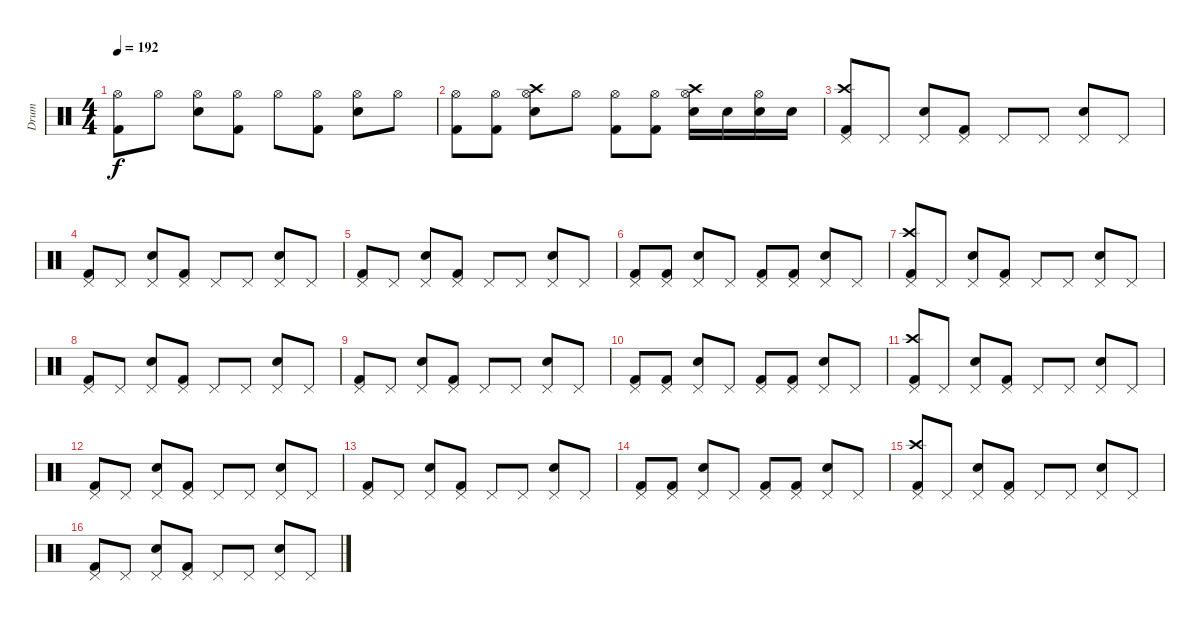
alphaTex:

\track ("Drum" "Drum") {instrument percussion}
\staff {score}
\articulation defaults
\ts (4 4)
\tempo 192
\clef neutral
\ks c
("Kick (hit) 2" "Hi-Hat (open)").8{dy f} "Hi-Hat (open)".8 ("Electric Snare (hit)" "Hi-Hat (open)").8 ("Kick (hit) 2" "Hi-Hat (open)").8 "Hi-Hat (open)".8 ("Kick (hit) 2" "Hi-Hat (open)").8 ("Electric Snare (hit)" "Hi-Hat (open)").8 "Hi-Hat (open)".8 |
("Kick (hit) 2" "Hi-Hat (open)").8 ("Kick (hit) 2" "Hi-Hat (open)").8 ("Crash high (hit)" "Electric Snare (hit)" "Hi-Hat (open)").8 "Hi-Hat (open)".8 ("Kick (hit) 2" "Hi-Hat (open)").8 ("Kick (hit) 2" "Hi-Hat (open)").8 ("Crash high (hit)" "Electric Snare (hit)" "Hi-Hat (open)").16 "Electric Snare (hit)".16 ("Electric Snare (hit)" "Hi-Hat (open)").16 "Electric Snare (hit)".16 |
("Crash high (hit)" "Kick (hit) 2" "Pedal Hi-Hat (hit)").8 "Pedal Hi-Hat (hit)".8 ("Electric Snare (hit)" "Pedal Hi-Hat (hit)").8 ("Kick (hit) 2" "Pedal Hi-Hat (hit)").8 "Pedal Hi-Hat (hit)".8 "Pedal Hi-Hat (hit)".8 ("Electric Snare (hit)" "Pedal Hi-Hat (hit)").8 "Pedal Hi-Hat (hit)".8 |
("Kick (hit) 2" "Pedal Hi-Hat (hit)").8 "Pedal Hi-Hat (hit)".8 ("Electric Snare (hit)" "Pedal Hi-Hat (hit)").8 ("Kick (hit) 2" "Pedal Hi-Hat (hit)").8 "Pedal Hi-Hat (hit)".8 "Pedal Hi-Hat (hit)".8 ("Electric Snare (hit)" "Pedal Hi-Hat (hit)").8 "Pedal Hi-Hat (hit)".8 |
("Kick (hit) 2" "Pedal Hi-Hat (hit)").8 "Pedal Hi-Hat (hit)".8 ("Electric Snare (hit)" "Pedal Hi-Hat (hit)").8 ("Kick (hit) 2" "Pedal Hi-Hat (hit)").8 "Pedal Hi-Hat (hit)".8 "Pedal Hi-Hat (hit)".8 ("Electric Snare (hit)" "Pedal Hi-Hat (hit)").8 "Pedal Hi-Hat (hit)".8 |
("Kick (hit) 2" "Pedal Hi-Hat (hit)").8 ("Kick (hit) 2" "Pedal Hi-Hat (hit)").8 ("Electric Snare (hit)" "Pedal Hi-Hat (hit)").8 "Pedal Hi-Hat (hit)".8 ("Kick (hit) 2" "Pedal Hi-Hat (hit)").8 ("Kick (hit) 2" "Pedal Hi-Hat (hit)").8 ("Electric Snare (hit)" "Pedal Hi-Hat (hit)").8 "Pedal Hi-Hat (hit)".8 |
("Crash high (hit)" "Kick (hit) 2" "Pedal Hi-Hat (hit)").8 "Pedal Hi-Hat (hit)".8 ("Electric Snare (hit)" "Pedal Hi-Hat (hit)").8 ("Kick (hit) 2" "Pedal Hi-Hat (hit)").8 "Pedal Hi-Hat (hit)".8 "Pedal Hi-Hat (hit)".8 ("Electric Snare (hit)" "Pedal Hi-Hat (hit)").8 "Pedal Hi-Hat (hit)".8 |
("Kick (hit) 2" "Pedal Hi-Hat (hit)").8 "Pedal Hi-Hat (hit)".8 ("Electric Snare (hit)" "Pedal Hi-Hat (hit)").8 ("Kick (hit) 2" "Pedal Hi-Hat (hit)").8 "Pedal Hi-Hat (hit)".8 "Pedal Hi-Hat (hit)".8 ("Electric Snare (hit)" "Pedal Hi-Hat (hit)").8 "Pedal Hi-Hat (hit)".8 |
("Kick (hit) 2" "Pedal Hi-Hat (hit)").8 "Pedal Hi-Hat (hit)".8 ("Electric Snare (hit)" "Pedal Hi-Hat (hit)").8 ("Kick (hit) 2" "Pedal Hi-Hat (hit)").8 "Pedal Hi-Hat (hit)".8 "Pedal Hi-Hat (hit)".8 ("Electric Snare (hit)" "Pedal Hi-Hat (hit)").8 "Pedal Hi-Hat (hit)".8 |
("Kick (hit) 2" "Pedal Hi-Hat (hit)").8 ("Kick (hit) 2" "Pedal Hi-Hat (hit)").8 ("Electric Snare (hit)" "Pedal Hi-Hat (hit)").8 "Pedal Hi-Hat (hit)".8 ("Kick (hit) 2" "Pedal Hi-Hat (hit)").8 ("Kick (hit) 2" "Pedal Hi-Hat (hit)").8 ("Electric Snare (hit)" "Pedal Hi-Hat (hit)").8 "Pedal Hi-Hat (hit)".8 |
("Crash high (hit)" "Kick (hit) 2" "Pedal Hi-Hat (hit)").8 "Pedal Hi-Hat (hit)".8 ("Electric Snare (hit)" "Pedal Hi-Hat (hit)").8 ("Kick (hit) 2" "Pedal Hi-Hat (hit)").8 "Pedal Hi-Hat (hit)".8 "Pedal Hi-Hat (hit)".8 ("Electric Snare (hit)" "Pedal Hi-Hat (hit)").8 "Pedal Hi-Hat (hit)".8 |
("Kick (hit) 2" "Pedal Hi-Hat (hit)").8 "Pedal Hi-Hat (hit)".8 ("Electric Snare (hit)" "Pedal Hi-Hat (hit)").8 ("Kick (hit) 2" "Pedal Hi-Hat (hit)").8 "Pedal Hi-Hat (hit)".8 "Pedal Hi-Hat (hit)".8 ("Electric Snare (hit)" "Pedal Hi-Hat (hit)").8 "Pedal Hi-Hat (hit)".8 |
("Kick (hit) 2" "Pedal Hi-Hat (hit)").8 "Pedal Hi-Hat (hit)".8 ("Electric Snare (hit)" "Pedal Hi-Hat (hit)").8 ("Kick (hit) 2" "Pedal Hi-Hat (hit)").8 "Pedal Hi-Hat (hit)".8 "Pedal Hi-Hat (hit)".8 ("Electric Snare (hit)" "Pedal Hi-Hat (hit)").8 "Pedal Hi-Hat (hit)".8 |
("Kick (hit) 2" "Pedal Hi-Hat (hit)").8 ("Kick (hit) 2" "Pedal Hi-Hat (hit)").8 ("Electric Snare (hit)" "Pedal Hi-Hat (hit)").8 "Pedal Hi-Hat (hit)".8 ("Kick (hit) 2" "Pedal Hi-Hat (hit)").8 ("Kick (hit) 2" "Pedal Hi-Hat (hit)").8 ("Electric Snare (hit)" "Pedal Hi-Hat (hit)").8 "Pedal Hi-Hat (hit)".8 |
("Crash high (hit)" "Kick (hit) 2" "Pedal Hi-Hat (hit)").8 "Pedal Hi-Hat (hit)".8 ("Electric Snare (hit)" "Pedal Hi-Hat (hit)").8 ("Kick (hit) 2" "Pedal Hi-Hat (hit)").8 "Pedal Hi-Hat (hit)".8 "Pedal Hi-Hat (hit)".8 ("Electric Snare (hit)" "Pedal Hi-Hat (hit)").8 "Pedal Hi-Hat (hit)".8 |
("Kick (hit) 2" "Pedal Hi-Hat (hit)").8 "Pedal Hi-Hat (hit)".8 ("Electric Snare (hit)" "Pedal Hi-Hat (hit)").8 ("Kick (hit) 2" "Pedal Hi-Hat (hit)").8 "Pedal Hi-Hat (hit)".8 "Pedal Hi-Hat (hit)".8 ("Electric Snare (hit)" "Pedal Hi-Hat (hit)").8 "Pedal Hi-Hat (hit)".8
